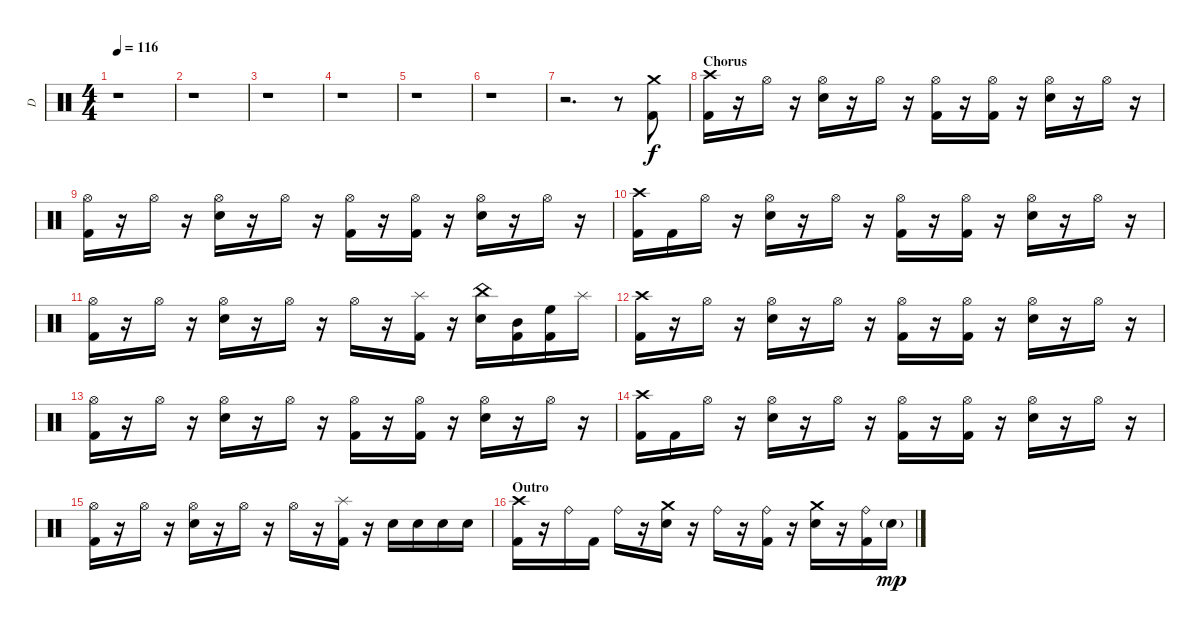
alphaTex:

\track ("D" "D") {instrument percussion}
\staff {score}
\articulation defaults
\ts (4 4)
\tempo 116
\clef neutral
\ks c
r.1{dy f} |
r.1 |
r.1 |
r.1 |
r.1 |
r.1 |
r.2{d} r.8 ("Crash medium (hit)" "Kick (hit) 2").8 |
\section ("" "Chorus")
("Crash high (hit)" "Kick (hit) 2").16 r.16 "Hi-Hat (open)".16 r.16 ("Hi-Hat (open)" "Electric Snare (hit)").16 r.16 "Hi-Hat (open)".16 r.16 ("Hi-Hat (open)" "Kick (hit) 2").16 r.16 ("Hi-Hat (open)" "Kick (hit) 2").16 r.16 ("Hi-Hat (open)" "Electric Snare (hit)").16 r.16 "Hi-Hat (open)".16 r.16 |
("Hi-Hat (open)" "Kick (hit) 2").16 r.16 "Hi-Hat (open)".16 r.16 ("Hi-Hat (open)" "Electric Snare (hit)").16 r.16 "Hi-Hat (open)".16 r.16 ("Hi-Hat (open)" "Kick (hit) 2").16 r.16 ("Hi-Hat (open)" "Kick (hit) 2").16 r.16 ("Hi-Hat (open)" "Electric Snare (hit)").16 r.16 "Hi-Hat (open)".16 r.16 |
("Crash high (hit)" "Kick (hit) 2").16 "Kick (hit) 2".16 "Hi-Hat (open)".16 r.16 ("Hi-Hat (open)" "Electric Snare (hit)").16 r.16 "Hi-Hat (open)".16 r.16 ("Hi-Hat (open)" "Kick (hit) 2").16 r.16 ("Hi-Hat (open)" "Kick (hit) 2").16 r.16 ("Hi-Hat (open)" "Electric Snare (hit)").16 r.16 "Hi-Hat (open)".16 r.16 |
("Hi-Hat (open)" "Kick (hit) 2").16 r.16 "Hi-Hat (open)".16 r.16 ("Hi-Hat (open)" "Electric Snare (hit)").16 r.16 "Hi-Hat (open)".16 r.16 "Hi-Hat (open)".16 r.16 ("Splash (hit)" "Kick (hit) 2").16 r.16 ("China (hit)" "Electric Snare (hit)").16 ("Mid Tom (hit)" "Kick (hit) 2").16 ("High Floor Tom (hit)" "Kick (hit) 2").16 "Splash (hit)".16 |
("Crash high (hit)" "Kick (hit) 2").16 r.16 "Hi-Hat (open)".16 r.16 ("Hi-Hat (open)" "Electric Snare (hit)").16 r.16 "Hi-Hat (open)".16 r.16 ("Hi-Hat (open)" "Kick (hit) 2").16 r.16 ("Hi-Hat (open)" "Kick (hit) 2").16 r.16 ("Hi-Hat (open)" "Electric Snare (hit)").16 r.16 "Hi-Hat (open)".16 r.16 |
("Hi-Hat (open)" "Kick (hit) 2").16 r.16 "Hi-Hat (open)".16 r.16 ("Hi-Hat (open)" "Electric Snare (hit)").16 r.16 "Hi-Hat (open)".16 r.16 ("Hi-Hat (open)" "Kick (hit) 2").16 r.16 ("Hi-Hat (open)" "Kick (hit) 2").16 r.16 ("Hi-Hat (open)" "Electric Snare (hit)").16 r.16 "Hi-Hat (open)".16 r.16 |
("Crash high (hit)" "Kick (hit) 2").16 "Kick (hit) 2".16 "Hi-Hat (open)".16 r.16 ("Hi-Hat (open)" "Electric Snare (hit)").16 r.16 "Hi-Hat (open)".16 r.16 ("Hi-Hat (open)" "Kick (hit) 2").16 r.16 ("Hi-Hat (open)" "Kick (hit) 2").16 r.16 ("Hi-Hat (open)" "Electric Snare (hit)").16 r.16 "Hi-Hat (open)".16 r.16 |
("Hi-Hat (open)" "Kick (hit) 2").16 r.16 "Hi-Hat (open)".16 r.16 ("Hi-Hat (open)" "Electric Snare (hit)").16 r.16 "Hi-Hat (open)".16 r.16 "Hi-Hat (open)".16 r.16 ("Splash (hit)" "Kick (hit) 2").16 r.16 "Electric Snare (hit)".16 "Electric Snare (hit)".16 "Electric Snare (hit)".16 "Electric Snare (hit)".16 |
\section ("" "Outro")
("Crash high (hit)" "Kick (hit) 2").16 r.16 "Ride (bell)".16 "Kick (hit) 2".16 "Ride (bell)".16 r.16 ("Crash medium (hit)" "Electric Snare (hit)").16 r.16 "Ride (bell)".16 r.16 ("Ride (bell)" "Kick (hit) 2").16 r.16 ("Crash medium (hit)" "Electric Snare (hit)").16 r.16 ("Ride (bell)" "Kick (hit) 2").16 "Electric Snare (hit)"{g}.16{dy mp}
